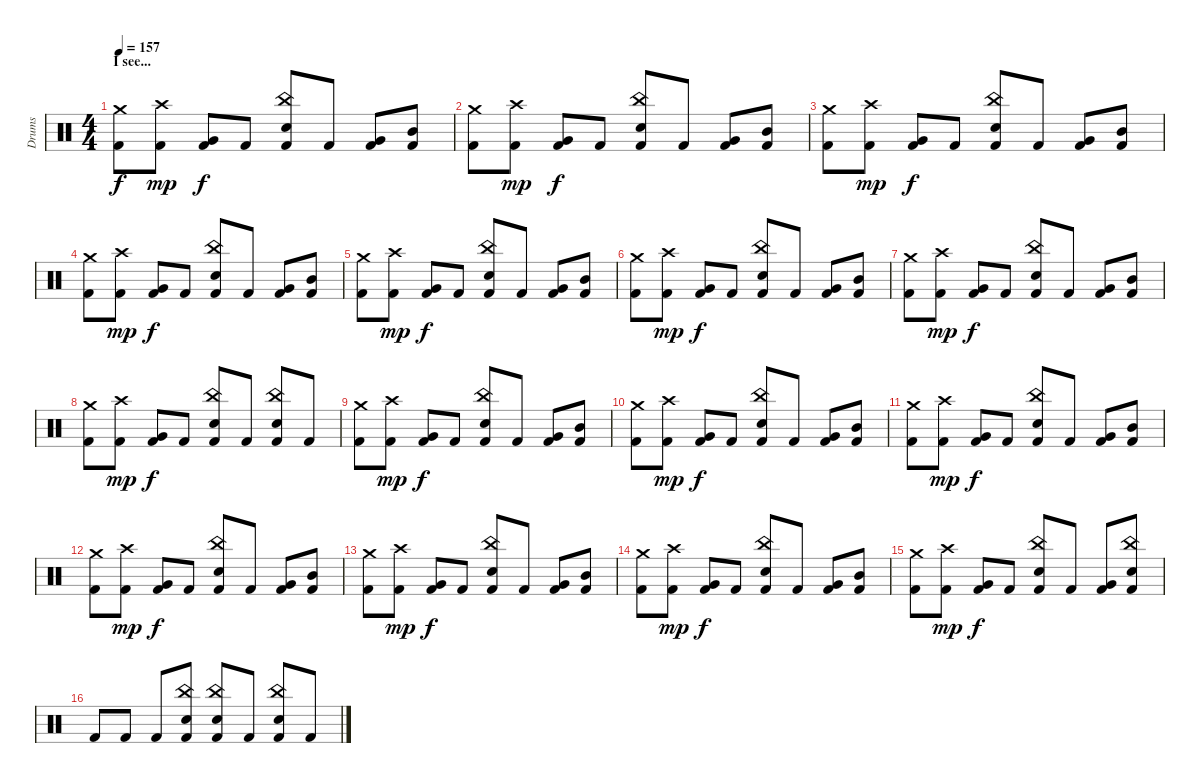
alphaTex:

\track ("Drums" "Drums") {instrument percussion}
\staff {score}
\articulation defaults
\ts (4 4)
\section ("" "I see...")
\tempo 157
\clef neutral
\ks c
("Crash medium (hit)" "Kick (hit) 2").8{dy f} ("Crash high (hit)" "Kick (hit) 2").8{dy mp} ("Very Low Tom (hit)" "Kick (hit) 2").8{dy f} "Kick (hit) 2".8 ("China (hit)" "Electric Snare (hit)" "Kick (hit) 2").8 "Kick (hit) 2".8 ("Very Low Tom (hit)" "Kick (hit) 2").8 ("Mid Tom (hit)" "Kick (hit) 2").8 |
("Crash medium (hit)" "Kick (hit) 2").8 ("Crash high (hit)" "Kick (hit) 2").8{dy mp} ("Very Low Tom (hit)" "Kick (hit) 2").8{dy f} "Kick (hit) 2".8 ("China (hit)" "Electric Snare (hit)" "Kick (hit) 2").8 "Kick (hit) 2".8 ("Very Low Tom (hit)" "Kick (hit) 2").8 ("Mid Tom (hit)" "Kick (hit) 2").8 |
("Crash medium (hit)" "Kick (hit) 2").8 ("Crash high (hit)" "Kick (hit) 2").8{dy mp} ("Very Low Tom (hit)" "Kick (hit) 2").8{dy f} "Kick (hit) 2".8 ("China (hit)" "Electric Snare (hit)" "Kick (hit) 2").8 "Kick (hit) 2".8 ("Very Low Tom (hit)" "Kick (hit) 2").8 ("Mid Tom (hit)" "Kick (hit) 2").8 |
("Crash medium (hit)" "Kick (hit) 2").8 ("Crash high (hit)" "Kick (hit) 2").8{dy mp} ("Very Low Tom (hit)" "Kick (hit) 2").8{dy f} "Kick (hit) 2".8 ("China (hit)" "Electric Snare (hit)" "Kick (hit) 2").8 "Kick (hit) 2".8 ("Very Low Tom (hit)" "Kick (hit) 2").8 ("Mid Tom (hit)" "Kick (hit) 2").8 |
("Crash medium (hit)" "Kick (hit) 2").8 ("Crash high (hit)" "Kick (hit) 2").8{dy mp} ("Very Low Tom (hit)" "Kick (hit) 2").8{dy f} "Kick (hit) 2".8 ("China (hit)" "Electric Snare (hit)" "Kick (hit) 2").8 "Kick (hit) 2".8 ("Very Low Tom (hit)" "Kick (hit) 2").8 ("Mid Tom (hit)" "Kick (hit) 2").8 |
("Crash medium (hit)" "Kick (hit) 2").8 ("Crash high (hit)" "Kick (hit) 2").8{dy mp} ("Very Low Tom (hit)" "Kick (hit) 2").8{dy f} "Kick (hit) 2".8 ("China (hit)" "Electric Snare (hit)" "Kick (hit) 2").8 "Kick (hit) 2".8 ("Very Low Tom (hit)" "Kick (hit) 2").8 ("Mid Tom (hit)" "Kick (hit) 2").8 |
("Crash medium (hit)" "Kick (hit) 2").8 ("Crash high (hit)" "Kick (hit) 2").8{dy mp} ("Very Low Tom (hit)" "Kick (hit) 2").8{dy f} "Kick (hit) 2".8 ("China (hit)" "Electric Snare (hit)" "Kick (hit) 2").8 "Kick (hit) 2".8 ("Very Low Tom (hit)" "Kick (hit) 2").8 ("Mid Tom (hit)" "Kick (hit) 2").8 |
("Crash medium (hit)" "Kick (hit) 2").8 ("Crash high (hit)" "Kick (hit) 2").8{dy mp} ("Very Low Tom (hit)" "Kick (hit) 2").8{dy f} "Kick (hit) 2".8 ("China (hit)" "Electric Snare (hit)" "Kick (hit) 2").8 "Kick (hit) 2".8 ("China (hit)" "Electric Snare (hit)" "Kick (hit) 2").8 "Kick (hit) 2".8 |
("Crash medium (hit)" "Kick (hit) 2").8 ("Crash high (hit)" "Kick (hit) 2").8{dy mp} ("Very Low Tom (hit)" "Kick (hit) 2").8{dy f} "Kick (hit) 2".8 ("China (hit)" "Electric Snare (hit)" "Kick (hit) 2").8 "Kick (hit) 2".8 ("Very Low Tom (hit)" "Kick (hit) 2").8 ("Mid Tom (hit)" "Kick (hit) 2").8 |
("Crash medium (hit)" "Kick (hit) 2").8 ("Crash high (hit)" "Kick (hit) 2").8{dy mp} ("Very Low Tom (hit)" "Kick (hit) 2").8{dy f} "Kick (hit) 2".8 ("China (hit)" "Electric Snare (hit)" "Kick (hit) 2").8 "Kick (hit) 2".8 ("Very Low Tom (hit)" "Kick (hit) 2").8 ("Mid Tom (hit)" "Kick (hit) 2").8 |
("Crash medium (hit)" "Kick (hit) 2").8 ("Crash high (hit)" "Kick (hit) 2").8{dy mp} ("Very Low Tom (hit)" "Kick (hit) 2").8{dy f} "Kick (hit) 2".8 ("China (hit)" "Electric Snare (hit)" "Kick (hit) 2").8 "Kick (hit) 2".8 ("Very Low Tom (hit)" "Kick (hit) 2").8 ("Mid Tom (hit)" "Kick (hit) 2").8 |
("Crash medium (hit)" "Kick (hit) 2").8 ("Crash high (hit)" "Kick (hit) 2").8{dy mp} ("Very Low Tom (hit)" "Kick (hit) 2").8{dy f} "Kick (hit) 2".8 ("China (hit)" "Electric Snare (hit)" "Kick (hit) 2").8 "Kick (hit) 2".8 ("Very Low Tom (hit)" "Kick (hit) 2").8 ("Mid Tom (hit)" "Kick (hit) 2").8 |
("Crash medium (hit)" "Kick (hit) 2").8 ("Crash high (hit)" "Kick (hit) 2").8{dy mp} ("Very Low Tom (hit)" "Kick (hit) 2").8{dy f} "Kick (hit) 2".8 ("China (hit)" "Electric Snare (hit)" "Kick (hit) 2").8 "Kick (hit) 2".8 ("Very Low Tom (hit)" "Kick (hit) 2").8 ("Mid Tom (hit)" "Kick (hit) 2").8 |
("Crash medium (hit)" "Kick (hit) 2").8 ("Crash high (hit)" "Kick (hit) 2").8{dy mp} ("Very Low Tom (hit)" "Kick (hit) 2").8{dy f} "Kick (hit) 2".8 ("China (hit)" "Electric Snare (hit)" "Kick (hit) 2").8 "Kick (hit) 2".8 ("Very Low Tom (hit)" "Kick (hit) 2").8 ("Mid Tom (hit)" "Kick (hit) 2").8 |
("Crash medium (hit)" "Kick (hit) 2").8 ("Crash high (hit)" "Kick (hit) 2").8{dy mp} ("Very Low Tom (hit)" "Kick (hit) 2").8{dy f} "Kick (hit) 2".8 ("China (hit)" "Electric Snare (hit)" "Kick (hit) 2").8 "Kick (hit) 2".8 ("Very Low Tom (hit)" "Kick (hit) 2").8 ("China (hit)" "Electric Snare (hit)" "Kick (hit) 2").8 |
"Kick (hit) 2".8 "Kick (hit) 2".8 "Kick (hit) 2".8 ("China (hit)" "Electric Snare (hit)" "Kick (hit) 2").8 ("China (hit)" "Electric Snare (hit)" "Kick (hit) 2").8 "Kick (hit) 2".8 ("China (hit)" "Electric Snare (hit)" "Kick (hit) 2").8 "Kick (hit) 2".8
